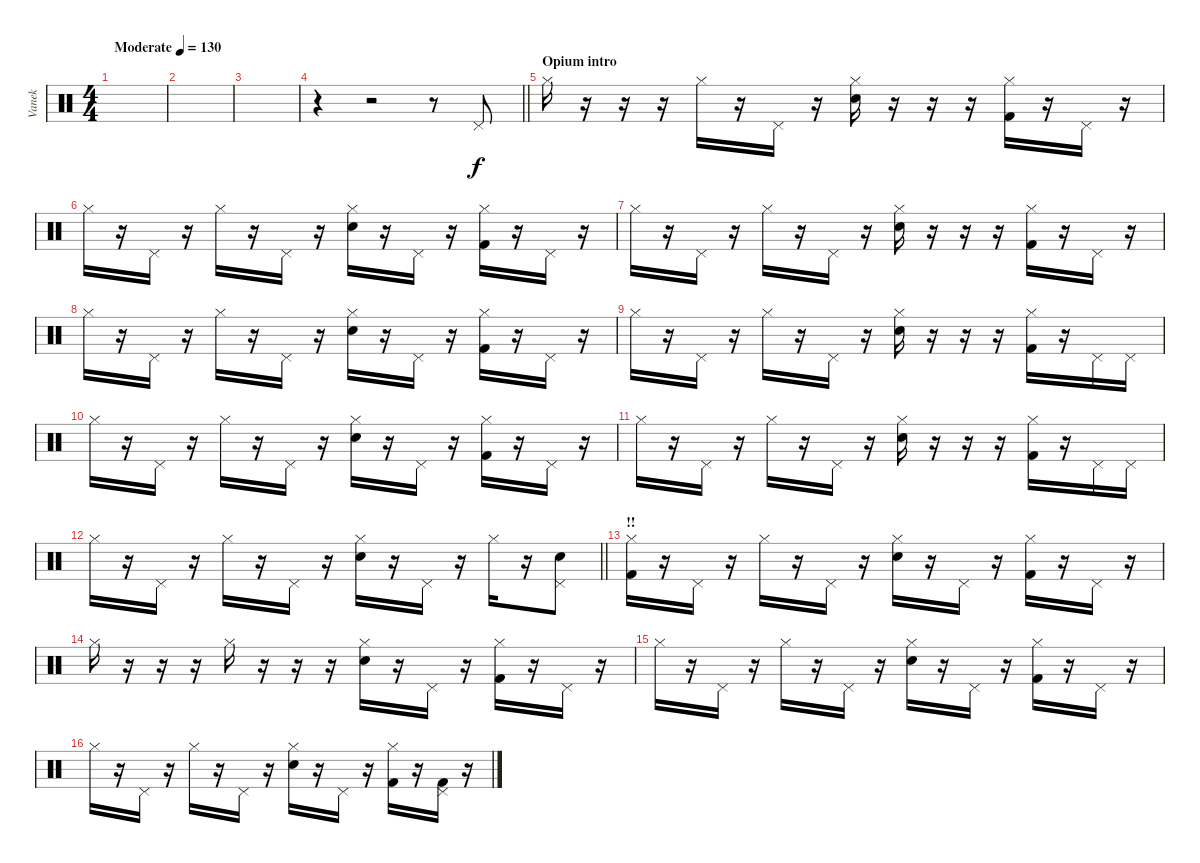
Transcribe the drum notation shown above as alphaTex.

\track ("Vanek" "Vanek") {instrument percussion}
\staff {score}
\articulation defaults
\ts (4 4)
\tempo (130 "Moderate")
\clef neutral
\ks c
|
|
|
\barLineRight lightlight
r.4 r.2 r.8 "Pedal Hi-Hat (hit)".8 |
\section ("" "Opium intro")
"Hi-Hat (closed)".16 r.16 r.16 r.16 "Hi-Hat (closed)".16 r.16 "Pedal Hi-Hat (hit)".16 r.16 ("Hi-Hat (closed)" "Electric Snare (hit)").16 r.16 r.16 r.16 ("Hi-Hat (closed)" "Kick (hit) 2").16 r.16 "Pedal Hi-Hat (hit)".16 r.16 |
"Hi-Hat (closed)".16 r.16 "Pedal Hi-Hat (hit)".16 r.16 "Hi-Hat (closed)".16 r.16 "Pedal Hi-Hat (hit)".16 r.16 ("Hi-Hat (closed)" "Electric Snare (hit)").16 r.16 "Pedal Hi-Hat (hit)".16 r.16 ("Hi-Hat (closed)" "Kick (hit) 2").16 r.16 "Pedal Hi-Hat (hit)".16 r.16 |
"Hi-Hat (closed)".16 r.16 "Pedal Hi-Hat (hit)".16 r.16 "Hi-Hat (closed)".16 r.16 "Pedal Hi-Hat (hit)".16 r.16 ("Hi-Hat (closed)" "Electric Snare (hit)").16 r.16 r.16 r.16 ("Hi-Hat (closed)" "Kick (hit) 2").16 r.16 "Pedal Hi-Hat (hit)".16 r.16 |
"Hi-Hat (closed)".16 r.16 "Pedal Hi-Hat (hit)".16 r.16 "Hi-Hat (closed)".16 r.16 "Pedal Hi-Hat (hit)".16 r.16 ("Hi-Hat (closed)" "Electric Snare (hit)").16 r.16 "Pedal Hi-Hat (hit)".16 r.16 ("Hi-Hat (closed)" "Kick (hit) 2").16 r.16 "Pedal Hi-Hat (hit)".16 r.16 |
"Hi-Hat (closed)".16 r.16 "Pedal Hi-Hat (hit)".16 r.16 "Hi-Hat (closed)".16 r.16 "Pedal Hi-Hat (hit)".16 r.16 ("Hi-Hat (closed)" "Electric Snare (hit)").16 r.16 r.16 r.16 ("Hi-Hat (closed)" "Kick (hit) 2").16 r.16 "Pedal Hi-Hat (hit)".16 "Pedal Hi-Hat (hit)".16 |
"Hi-Hat (closed)".16 r.16 "Pedal Hi-Hat (hit)".16 r.16 "Hi-Hat (closed)".16 r.16 "Pedal Hi-Hat (hit)".16 r.16 ("Hi-Hat (closed)" "Electric Snare (hit)").16 r.16 "Pedal Hi-Hat (hit)".16 r.16 ("Hi-Hat (closed)" "Kick (hit) 2").16 r.16 "Pedal Hi-Hat (hit)".16 r.16 |
"Hi-Hat (closed)".16 r.16 "Pedal Hi-Hat (hit)".16 r.16 "Hi-Hat (closed)".16 r.16 "Pedal Hi-Hat (hit)".16 r.16 ("Hi-Hat (closed)" "Electric Snare (hit)").16 r.16 r.16 r.16 ("Hi-Hat (closed)" "Kick (hit) 2").16 r.16 "Pedal Hi-Hat (hit)".16 "Pedal Hi-Hat (hit)".16 |
\barLineRight lightlight "Hi-Hat (closed)".16
r.16 "Pedal Hi-Hat (hit)".16 r.16 "Hi-Hat (closed)".16 r.16 "Pedal Hi-Hat (hit)".16 r.16 ("Hi-Hat (closed)" "Electric Snare (hit)").16 r.16 "Pedal Hi-Hat (hit)".16 r.16 "Hi-Hat (closed)".16 r.16 ("Pedal Hi-Hat (hit)" "Electric Snare (hit)").8 |
\section ("" "!!")
("Hi-Hat (closed)" "Kick (hit) 2").16 r.16 "Pedal Hi-Hat (hit)".16 r.16 "Hi-Hat (closed)".16 r.16 "Pedal Hi-Hat (hit)".16 r.16 ("Hi-Hat (closed)" "Electric Snare (hit)").16 r.16 "Pedal Hi-Hat (hit)".16 r.16 ("Hi-Hat (closed)" "Kick (hit) 2").16 r.16 "Pedal Hi-Hat (hit)".16 r.16 |
"Hi-Hat (closed)".16 r.16 r.16 r.16 "Hi-Hat (closed)".16 r.16 r.16 r.16 ("Hi-Hat (closed)" "Electric Snare (hit)").16 r.16 "Pedal Hi-Hat (hit)".16 r.16 ("Hi-Hat (closed)" "Kick (hit) 2").16 r.16 "Pedal Hi-Hat (hit)".16 r.16 |
"Hi-Hat (closed)".16 r.16 "Pedal Hi-Hat (hit)".16 r.16 "Hi-Hat (closed)".16 r.16 "Pedal Hi-Hat (hit)".16 r.16 ("Hi-Hat (closed)" "Electric Snare (hit)").16 r.16 "Pedal Hi-Hat (hit)".16 r.16 ("Hi-Hat (closed)" "Kick (hit) 2").16 r.16 "Pedal Hi-Hat (hit)".16 r.16 |
"Hi-Hat (closed)".16 r.16 "Pedal Hi-Hat (hit)".16 r.16 "Hi-Hat (closed)".16 r.16 "Pedal Hi-Hat (hit)".16 r.16 ("Hi-Hat (closed)" "Electric Snare (hit)").16 r.16 "Pedal Hi-Hat (hit)".16 r.16 ("Hi-Hat (closed)" "Kick (hit) 2").16 r.16 ("Pedal Hi-Hat (hit)" "Kick (hit) 2").16 r.16
